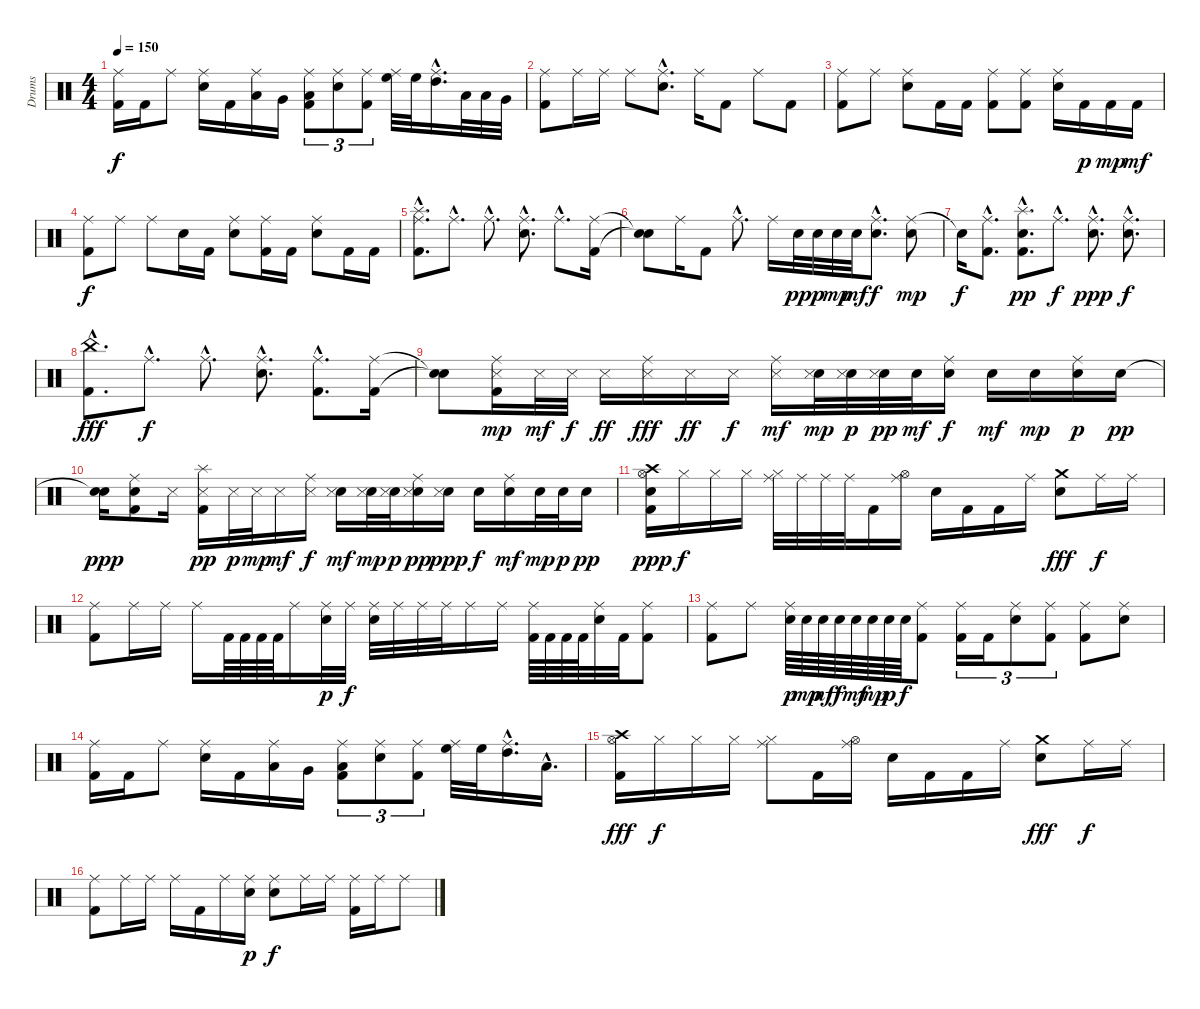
\track ("Drums" "Drums") {instrument percussion}
\staff {score}
\articulation defaults
\ts (4 4)
\tempo 150
\clef neutral
\ks c
("Ride (middle)" "Kick (hit) 2").16{dy f} "Kick (hit) 2".16 "Ride (middle)".8 ("Ride (middle)" "Electric Snare (hit)").16 "Kick (hit) 2".16 ("Ride (middle)" "Low Tom (hit)").16 "Very Low Tom (hit)".16 ("Ride (middle)" "Low Tom (hit)" "Kick (hit) 2").8{tu (3 2)} ("Ride (middle)" "Electric Snare (hit)").8{tu (3 2)} ("Ride (middle)" "Kick (hit) 2").8{tu (3 2)} ("Ride (middle)" "High Floor Tom (hit)").32 "High Floor Tom (hit)".32 ("Ride (middle)"{hac} "High Tom (hit)"{hac}).16{d} "Low Tom (hit)".32 "Low Tom (hit)".32 "Very Low Tom (hit)".32 |
("Ride (middle)" "Kick (hit) 2").8 "Ride (middle)".16 "Ride (middle)".16 "Ride (middle)".8 ("Ride (middle)"{hac} "Electric Snare (hit)"{hac}).8{d} "Ride (middle)".16 "Kick (hit) 2".8 "Ride (middle)".8 "Kick (hit) 2".8 |
("Ride (middle)" "Kick (hit) 2").8 "Ride (middle)".8 ("Ride (middle)" "Electric Snare (hit)").8 "Kick (hit) 2".16 "Kick (hit) 2".16 ("Ride (middle)" "Kick (hit) 2").8 ("Ride (middle)" "Kick (hit) 2").8 ("Ride (middle)" "Electric Snare (hit)").16 "Kick (hit) 2".16{dy p} "Kick (hit) 2".16{dy mp} "Kick (hit) 2".16{dy mf} |
("Ride (middle)" "Kick (hit) 2").8{dy f} "Ride (middle)".8 "Ride (middle)".8 "Electric Snare (hit)".16 "Kick (hit) 2".16 ("Ride (middle)" "Electric Snare (hit)").8 ("Ride (middle)" "Kick (hit) 2").16 "Kick (hit) 2".16 ("Ride (middle)" "Electric Snare (hit)").8 "Kick (hit) 2".16 "Kick (hit) 2".16 |
("Splash (hit)"{hac} "Ride (middle)"{hac} "Kick (hit) 2"{hac}).8{d} "Ride (middle)"{hac}.8{d} "Ride (middle)"{hac}.8{d} ("Ride (middle)"{hac} "Electric Snare (hit)"{hac}).8{d} "Ride (middle)"{hac}.8{d} ("Ride (middle)" "Kick (hit) 2").16 |
("Snare (hit)"{t} "Snare (hit)"{t}).8 "Ride (middle)".16 "Kick (hit) 2".8 "Ride (middle)"{hac}.8{d} "Ride (middle)".16 "Electric Snare (hit)".32{dy pp} "Electric Snare (hit)".32{dy p} "Electric Snare (hit)".32{dy mp} "Electric Snare (hit)".32{dy mf} ("Ride (middle)"{hac} "Electric Snare (hit)"{hac}).8{d dy f} ("Ride (middle)" "Electric Snare (hit)").8{dy mp} |
"Snare (hit)"{t}.16{dy f} ("Ride (middle)"{hac} "Kick (hit) 2"{hac}).8{d} ("Splash (hit)"{hac} "Electric Snare (hit)"{hac} "Kick (hit) 2"{hac}).8{d dy pp} "Ride (middle)"{hac}.8{d dy f} ("Ride (middle)"{hac} "Electric Snare (hit)"{hac}).8{d dy ppp} ("Ride (middle)"{hac} "Electric Snare (hit)"{hac}).8{d dy f} |
("China (hit)"{hac} "Kick (hit) 2"{hac}).8{d dy fff} "Ride (middle)"{hac}.8{d dy f} "Ride (middle)"{hac}.8{d} ("Ride (middle)"{hac} "Electric Snare (hit)"{hac}).8{d} ("Ride (middle)"{hac} "Kick (hit) 2"{hac}).8{d} ("Ride (middle)" "Kick (hit) 2").16 |
("Snare (hit)"{t} "Snare (hit)"{t}).8 ("Ride (middle)" "Snare (side stick) 3" "Kick (hit) 2").16{dy mp} "Snare (side stick) 3".32{dy mf} "Snare (side stick) 3".32{dy f} "Snare (side stick) 3".16{dy ff} ("Ride (middle)" "Snare (side stick) 3").16{dy fff} "Snare (side stick) 3".16{dy ff} "Snare (side stick) 3".16{dy f} ("Ride (middle)" "Snare (side stick) 3").16{dy mf} ("Electric Snare (hit)" "Snare (side stick) 3").32{dy mp} ("Electric Snare (hit)" "Snare (side stick) 3").32{dy p} ("Electric Snare (hit)" "Snare (side stick) 3").32{dy pp} "Electric Snare (hit)".32{dy mf} ("Ride (middle)" "Electric Snare (hit)").16{dy f} "Electric Snare (hit)".16{dy mf} "Electric Snare (hit)".16{dy mp} ("Ride (middle)" "Electric Snare (hit)").16{dy p} "Electric Snare (hit)".16{dy pp} |
("Snare (hit)"{t} "Electric Snare (hit)").16{dy ppp} ("Ride (middle)" "Electric Snare (hit)" "Kick (hit) 2").8 "Snare (side stick) 3".16 ("Splash (hit)" "Snare (side stick) 3" "Kick (hit) 2").16{dy pp} "Snare (side stick) 3".32{dy p} "Snare (side stick) 3".32{dy mp} "Snare (side stick) 3".16{dy mf} ("Ride (middle)" "Snare (side stick) 3").16{dy f} ("Electric Snare (hit)" "Snare (side stick) 3").16{dy mf} ("Electric Snare (hit)" "Snare (side stick) 3").32{dy mp} ("Electric Snare (hit)" "Snare (side stick) 3").32{dy p} ("Ride (middle)" "Electric Snare (hit)" "Snare (side stick) 3").16{dy pp} ("Electric Snare (hit)" "Snare (side stick) 3").16{dy ppp} "Electric Snare (hit)".16{dy f} ("Ride (middle)" "Electric Snare (hit)").16{dy mf} "Electric Snare (hit)".32{dy mp} "Electric Snare (hit)".32{dy p} "Electric Snare (hit)".16{dy pp} |
("Crash high (hit)" "Electric Snare (hit)" "Hi-Hat (open)" "Kick (hit) 2").16{dy ppp} "Hi-Hat (closed)".16{dy f} "Hi-Hat (closed)".16 "Hi-Hat (closed)".16 ("Ride (middle)" "Hi-Hat (closed)").32 "Ride (middle)".32 "Ride (middle)".32 "Ride (middle)".32 "Kick (hit) 2".16 ("Ride (middle)" "Hi-Hat (open)").16 "Electric Snare (hit)".16 "Kick (hit) 2".16 "Kick (hit) 2".16 "Ride (middle)".16 ("Crash medium (hit)" "Electric Snare (hit)").8{dy fff} "Ride (middle)".16{dy f} "Ride (middle)".16 |
("Ride (middle)" "Kick (hit) 2").8 "Ride (middle)".16 "Ride (middle)".16 "Ride (middle)".16 "Kick (hit) 2".64 "Kick (hit) 2".64 "Kick (hit) 2".64 "Kick (hit) 2".64 "Ride (middle)".16 ("Ride (middle)" "Electric Snare (hit)").32{dy p} "Ride (middle)".32{dy f} ("Ride (middle)" "Electric Snare (hit)").32 "Ride (middle)".32 "Ride (middle)".32 "Ride (middle)".32 "Ride (middle)".16 "Ride (middle)".16 ("Ride (middle)" "Kick (hit) 2").64 "Kick (hit) 2".64 "Kick (hit) 2".64 "Kick (hit) 2".64 ("Ride (middle)" "Electric Snare (hit)").32 "Kick (hit) 2".32 ("Ride (middle)" "Kick (hit) 2").8 |
("Ride (middle)" "Kick (hit) 2").8 "Ride (middle)".8 ("Ride (middle)" "Electric Snare (hit)").64{dy p} "Electric Snare (hit)".64{dy mp} "Electric Snare (hit)".64{dy mf} "Electric Snare (hit)".64{dy f} "Electric Snare (hit)".64{dy mf} "Electric Snare (hit)".64{dy mp} "Electric Snare (hit)".64{dy p} "Electric Snare (hit)".64{dy f} ("Ride (middle)" "Kick (hit) 2").8 ("Ride (middle)" "Kick (hit) 2").16{tu (3 2)} "Kick (hit) 2".16{tu (3 2)} ("Ride (middle)" "Electric Snare (hit)").8{tu (3 2)} ("Ride (middle)" "Kick (hit) 2").8{tu (3 2)} ("Ride (middle)" "Kick (hit) 2").8 ("Ride (middle)" "Electric Snare (hit)").8 |
("Ride (middle)" "Kick (hit) 2").16 "Kick (hit) 2".16 "Ride (middle)".8 ("Ride (middle)" "Electric Snare (hit)").16 "Kick (hit) 2".16 ("Ride (middle)" "Low Tom (hit)").16 "Very Low Tom (hit)".16 ("Ride (middle)" "Low Tom (hit)" "Kick (hit) 2").8{tu (3 2)} ("Ride (middle)" "Electric Snare (hit)").8{tu (3 2)} ("Ride (middle)" "Kick (hit) 2").8{tu (3 2)} ("Ride (middle)" "High Floor Tom (hit)").32 "High Floor Tom (hit)".32 ("Ride (middle)"{hac} "High Tom (hit)"{hac}).16{d} "Low Tom (hit)"{hac}.16{d} |
("Crash high (hit)" "Hi-Hat (open)" "Kick (hit) 2").16{dy fff} "Hi-Hat (closed)".16{dy f} "Hi-Hat (closed)".16 "Hi-Hat (closed)".16 ("Ride (middle)" "Hi-Hat (closed)").8 "Kick (hit) 2".16 ("Ride (middle)" "Hi-Hat (open)").16 "Electric Snare (hit)".16 "Kick (hit) 2".16 "Kick (hit) 2".16 "Ride (middle)".16 ("Crash medium (hit)" "Electric Snare (hit)").8{dy fff} "Ride (middle)".16{dy f} "Ride (middle)".16 |
("Ride (middle)" "Kick (hit) 2").8 "Ride (middle)".16 "Ride (middle)".16 "Ride (middle)".16 "Kick (hit) 2".16 "Ride (middle)".16 ("Ride (middle)" "Electric Snare (hit)").16{dy p} ("Ride (middle)" "Electric Snare (hit)").8{dy f} "Ride (middle)".16 "Ride (middle)".16 ("Ride (middle)" "Kick (hit) 2").16 "Ride (middle)".16 "Ride (middle)".8
